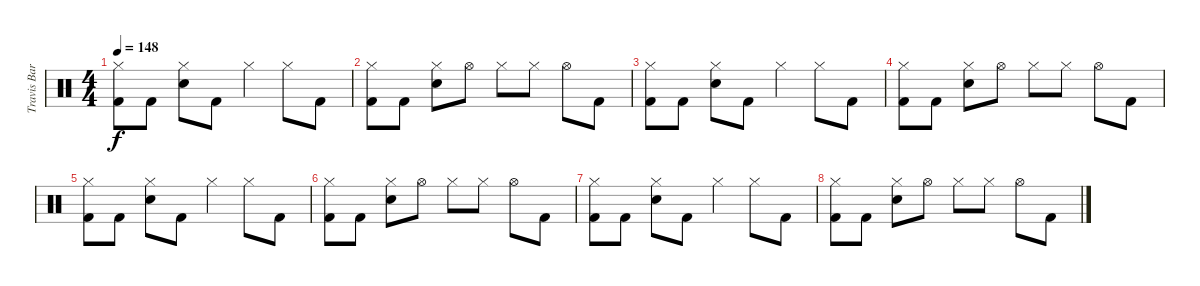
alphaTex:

\track ("Travis Barker - Drums" "Travis Bar") {instrument percussion}
\staff {score}
\articulation defaults
\ts (4 4)
\tempo 148
\clef neutral
\ks c
("Hi-Hat (closed)" "Kick (hit) 2").8{dy f} "Kick (hit) 2".8 ("Hi-Hat (closed)" "Electric Snare (hit)").8 "Kick (hit) 2".8 "Hi-Hat (closed)".4 "Hi-Hat (closed)".8 "Kick (hit) 2".8 |
("Hi-Hat (closed)" "Kick (hit) 2").8 "Kick (hit) 2".8 ("Hi-Hat (closed)" "Electric Snare (hit)").8 "Hi-Hat (open)".8 "Hi-Hat (closed)".8 "Hi-Hat (closed)".8 "Hi-Hat (open)".8 "Kick (hit) 2".8 |
("Hi-Hat (closed)" "Kick (hit) 2").8 "Kick (hit) 2".8 ("Hi-Hat (closed)" "Electric Snare (hit)").8 "Kick (hit) 2".8 "Hi-Hat (closed)".4 "Hi-Hat (closed)".8 "Kick (hit) 2".8 |
("Hi-Hat (closed)" "Kick (hit) 2").8 "Kick (hit) 2".8 ("Hi-Hat (closed)" "Electric Snare (hit)").8 "Hi-Hat (open)".8 "Hi-Hat (closed)".8 "Hi-Hat (closed)".8 "Hi-Hat (open)".8 "Kick (hit) 2".8 |
("Hi-Hat (closed)" "Kick (hit) 2").8 "Kick (hit) 2".8 ("Hi-Hat (closed)" "Electric Snare (hit)").8 "Kick (hit) 2".8 "Hi-Hat (closed)".4 "Hi-Hat (closed)".8 "Kick (hit) 2".8 |
("Hi-Hat (closed)" "Kick (hit) 2").8 "Kick (hit) 2".8 ("Hi-Hat (closed)" "Electric Snare (hit)").8 "Hi-Hat (open)".8 "Hi-Hat (closed)".8 "Hi-Hat (closed)".8 "Hi-Hat (open)".8 "Kick (hit) 2".8 |
("Hi-Hat (closed)" "Kick (hit) 2").8 "Kick (hit) 2".8 ("Hi-Hat (closed)" "Electric Snare (hit)").8 "Kick (hit) 2".8 "Hi-Hat (closed)".4 "Hi-Hat (closed)".8 "Kick (hit) 2".8 |
("Hi-Hat (closed)" "Kick (hit) 2").8 "Kick (hit) 2".8 ("Hi-Hat (closed)" "Electric Snare (hit)").8 "Hi-Hat (open)".8 "Hi-Hat (closed)".8 "Hi-Hat (closed)".8 "Hi-Hat (open)".8 "Kick (hit) 2".8
